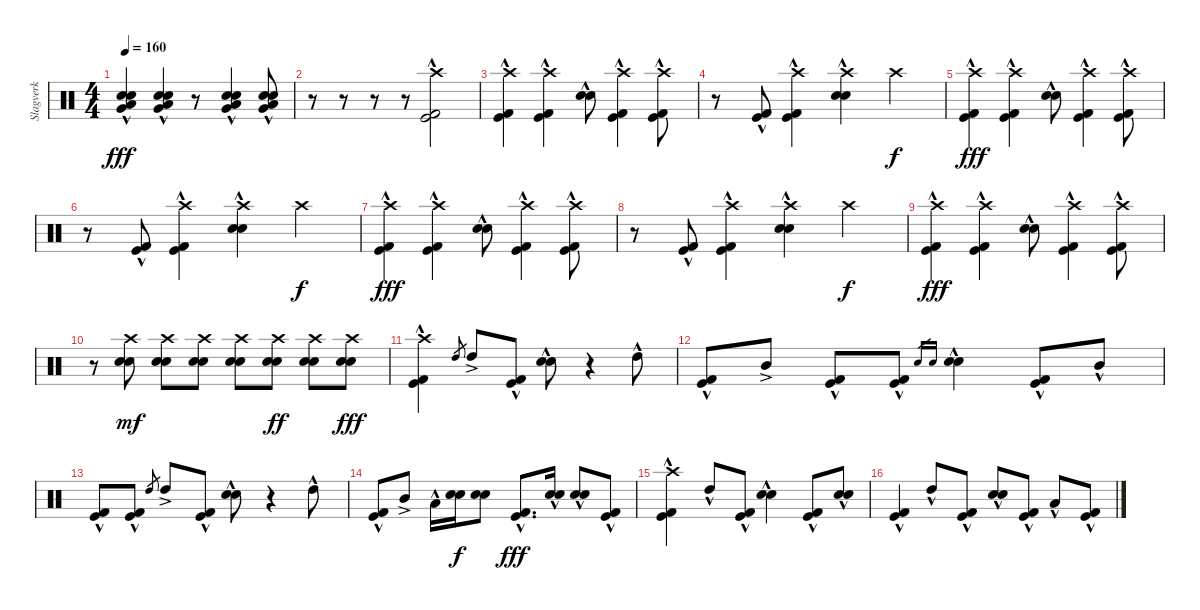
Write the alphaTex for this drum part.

\track ("Slagverk" "Slagverk") {instrument percussion}
\staff {score}
\articulation defaults
\ts (4 4)
\tempo 160
\clef neutral
\ks c
("Electric Snare (hit)" "Snare (hit) 2" "Low Tom (hit)"{hac} "Very Low Tom (hit)"{hac}).4{dy fff} ("Electric Snare (hit)" "Snare (hit) 2" "Low Tom (hit)"{hac} "Very Low Tom (hit)"{hac}).4 r.8 ("Electric Snare (hit)" "Snare (hit) 2" "Low Tom (hit)"{hac} "Very Low Tom (hit)"{hac}).4 ("Electric Snare (hit)" "Snare (hit) 2" "Low Tom (hit)"{hac} "Very Low Tom (hit)"{hac}).8 |
r.8 r.8 r.8 r.8 ("Crash high (hit)" "Kick (hit)"{hac} "Kick (hit) 2"{hac}).2 |
("Crash high (hit)" "Kick (hit)"{hac} "Kick (hit) 2"{hac}).4 ("Crash high (hit)" "Kick (hit)"{hac} "Kick (hit) 2"{hac}).4 ("Electric Snare (hit)"{hac} "Snare (hit) 2"{hac}).8 ("Crash high (hit)" "Kick (hit)"{hac} "Kick (hit) 2"{hac}).4 ("Crash high (hit)" "Kick (hit)"{hac} "Kick (hit) 2"{hac}).8 |
r.8 ("Kick (hit)"{hac} "Kick (hit) 2"{hac}).8 ("Crash high (hit)" "Kick (hit)"{hac} "Kick (hit) 2"{hac}).4 ("Crash high (hit)" "Electric Snare (hit)"{hac} "Snare (hit) 2"{hac}).4 "Crash high (hit)".4{dy f} |
("Crash high (hit)" "Kick (hit)"{hac} "Kick (hit) 2"{hac}).4{dy fff} ("Crash high (hit)" "Kick (hit)"{hac} "Kick (hit) 2"{hac}).4 ("Electric Snare (hit)"{hac} "Snare (hit) 2"{hac}).8 ("Crash high (hit)" "Kick (hit)"{hac} "Kick (hit) 2"{hac}).4 ("Crash high (hit)" "Kick (hit)"{hac} "Kick (hit) 2"{hac}).8 |
r.8 ("Kick (hit)"{hac} "Kick (hit) 2"{hac}).8 ("Crash high (hit)" "Kick (hit)"{hac} "Kick (hit) 2"{hac}).4 ("Crash high (hit)" "Electric Snare (hit)"{hac} "Snare (hit) 2"{hac}).4 "Crash high (hit)".4{dy f} |
("Crash high (hit)" "Kick (hit)"{hac} "Kick (hit) 2"{hac}).4{dy fff} ("Crash high (hit)" "Kick (hit)"{hac} "Kick (hit) 2"{hac}).4 ("Electric Snare (hit)"{hac} "Snare (hit) 2"{hac}).8 ("Crash high (hit)" "Kick (hit)"{hac} "Kick (hit) 2"{hac}).4 ("Crash high (hit)" "Kick (hit)"{hac} "Kick (hit) 2"{hac}).8 |
r.8 ("Kick (hit)"{hac} "Kick (hit) 2"{hac}).8 ("Crash high (hit)" "Kick (hit)"{hac} "Kick (hit) 2"{hac}).4 ("Crash high (hit)" "Electric Snare (hit)"{hac} "Snare (hit) 2"{hac}).4 "Crash high (hit)".4{dy f} |
("Crash high (hit)" "Kick (hit)"{hac} "Kick (hit) 2"{hac}).4{dy fff} ("Crash high (hit)" "Kick (hit)"{hac} "Kick (hit) 2"{hac}).4 ("Electric Snare (hit)"{hac} "Snare (hit) 2"{hac}).8 ("Crash high (hit)" "Kick (hit)"{hac} "Kick (hit) 2"{hac}).4 ("Crash high (hit)" "Kick (hit)"{hac} "Kick (hit) 2"{hac}).8 |
r.8 ("Crash high (hit)" "Electric Snare (hit)" "Snare (hit) 2").8{dy mf} ("Crash high (hit)" "Electric Snare (hit)" "Snare (hit) 2").8 ("Crash high (hit)" "Electric Snare (hit)" "Snare (hit) 2").8 ("Crash high (hit)" "Electric Snare (hit)" "Snare (hit) 2").8 ("Crash high (hit)" "Electric Snare (hit)" "Snare (hit) 2").8{dy ff} ("Crash high (hit)" "Electric Snare (hit)" "Snare (hit) 2").8 ("Crash high (hit)" "Electric Snare (hit)" "Snare (hit) 2").8{dy fff} |
("Crash high (hit)" "Kick (hit)"{hac} "Kick (hit) 2"{hac}).4 "High Tom (hit)".8{gr} "High Tom (hit)"{ac}.8 ("Kick (hit)"{hac} "Kick (hit) 2"{hac}).8 ("Electric Snare (hit)"{hac} "Snare (hit) 2"{hac}).8 r.4 "High Tom (hit)"{hac}.8 |
("Kick (hit)"{hac} "Kick (hit) 2"{hac}).8 "Mid Tom (hit)"{ac}.8 ("Kick (hit)"{hac} "Kick (hit) 2"{hac}).8 ("Kick (hit)"{hac} "Kick (hit) 2"{hac}).8 "Electric Snare (hit)".16{gr} "Snare (hit) 2".16{gr} ("Electric Snare (hit)"{hac} "Snare (hit) 2"{hac}).4 ("Kick (hit)"{hac} "Kick (hit) 2"{hac}).8 "Mid Tom (hit)"{hac}.8 |
("Kick (hit)"{hac} "Kick (hit) 2"{hac}).8 ("Kick (hit)"{hac} "Kick (hit) 2"{hac}).8 "High Tom (hit)".8{gr} "High Tom (hit)"{ac}.8 ("Kick (hit)"{hac} "Kick (hit) 2"{hac}).8 ("Electric Snare (hit)"{hac} "Snare (hit) 2"{hac}).8 r.4 "High Tom (hit)"{hac}.8 |
("Kick (hit)"{hac} "Kick (hit) 2"{hac}).8 "Mid Tom (hit)"{ac}.8 "Low Tom (hit)"{hac}.16 ("Electric Snare (hit)" "Snare (hit) 2").16{dy f} ("Snare (hit) 2" "Snare (hit) 2").8 ("Kick (hit)"{hac} "Kick (hit) 2"{hac}).8{d dy fff} ("Electric Snare (hit)"{hac} "Snare (hit) 2"{hac}).16 ("Electric Snare (hit)"{hac} "Snare (hit) 2"{hac}).8 ("Kick (hit)"{hac} "Kick (hit) 2"{hac}).8 |
("Crash high (hit)" "Kick (hit)"{hac} "Kick (hit) 2"{hac}).4 "High Tom (hit)"{hac}.8 ("Kick (hit)"{hac} "Kick (hit) 2"{hac}).8 ("Electric Snare (hit)"{hac} "Snare (hit) 2"{hac}).4 ("Kick (hit)"{hac} "Kick (hit) 2"{hac}).8 ("Electric Snare (hit)"{hac} "Snare (hit) 2"{hac}).8 |
("Kick (hit)"{hac} "Kick (hit) 2"{hac}).4 "High Tom (hit)"{hac}.8 ("Kick (hit)"{hac} "Kick (hit) 2"{hac}).8 ("Electric Snare (hit)"{hac} "Snare (hit) 2"{hac}).8 ("Kick (hit)"{hac} "Kick (hit) 2"{hac}).8 "Low Tom (hit)"{hac}.8 ("Kick (hit)"{hac} "Kick (hit) 2"{hac}).8
